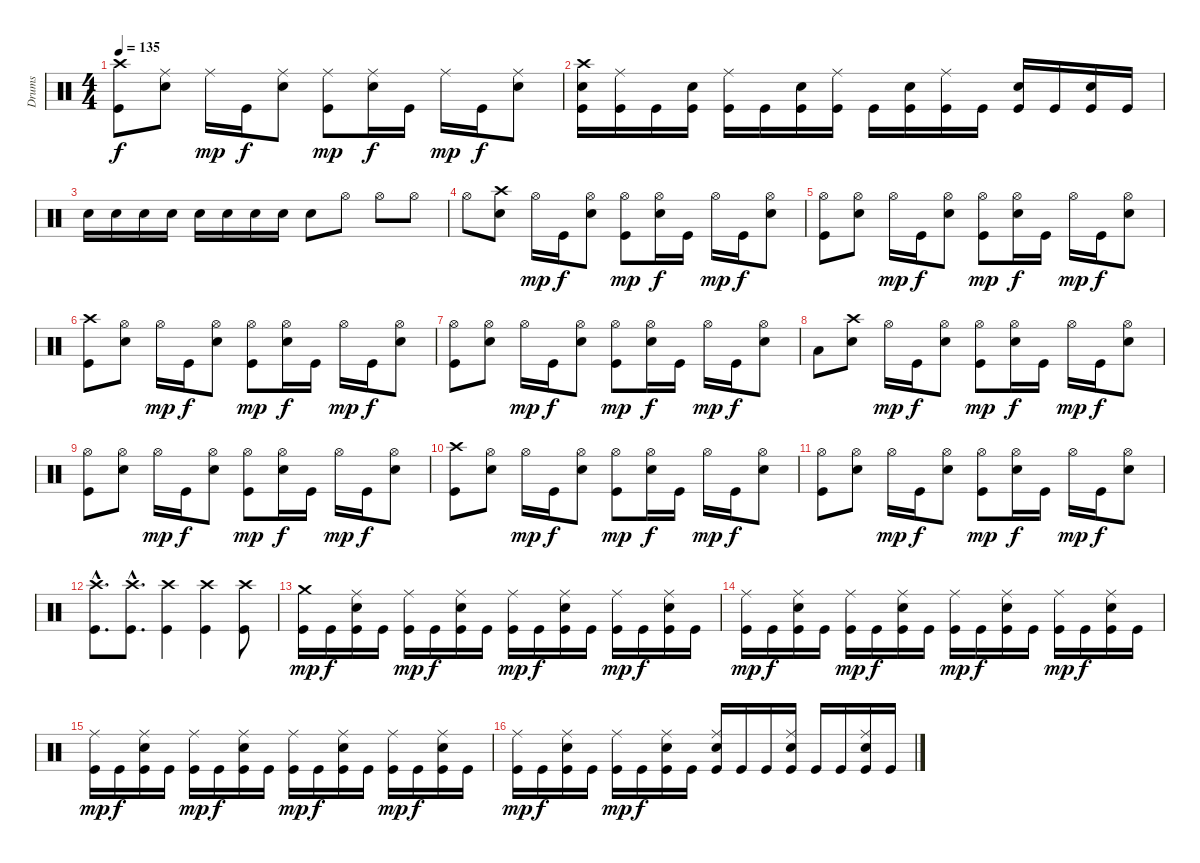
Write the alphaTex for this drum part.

\track ("Drums" "Drums") {instrument percussion}
\staff {score}
\articulation defaults
\ts (4 4)
\tempo 135
\clef neutral
\ks c
("Crash high (hit)" "Kick (hit)").8{dy f} ("Ride (middle)" "Snare (hit) 2").8 "Ride (middle)".16{dy mp} "Kick (hit)".16{dy f} ("Ride (middle)" "Snare (hit) 2").8 ("Ride (middle)" "Kick (hit)").8{dy mp} ("Ride (middle)" "Snare (hit) 2").16{dy f} "Kick (hit)".16 "Ride (middle)".16{dy mp} "Kick (hit)".16{dy f} ("Ride (middle)" "Snare (hit) 2").8 |
("Crash high (hit)" "Snare (hit) 2" "Kick (hit)").16 ("Ride (middle)" "Kick (hit)").16 "Kick (hit)".16 ("Snare (hit) 2" "Kick (hit)").16 ("Ride (middle)" "Kick (hit)").16 "Kick (hit)".16 ("Snare (hit) 2" "Kick (hit)").16 ("Ride (middle)" "Kick (hit)").16 "Kick (hit)".16 ("Snare (hit) 2" "Kick (hit)").16 ("Ride (middle)" "Kick (hit)").16 "Kick (hit)".16 ("Snare (hit) 2" "Kick (hit)").16 "Kick (hit)".16 ("Snare (hit) 2" "Kick (hit)").16 "Kick (hit)".16 |
"Snare (hit) 2".16 "Snare (hit) 2".16 "Snare (hit) 2".16 "Snare (hit) 2".16 "Snare (hit) 2".16 "Snare (hit) 2".16 "Snare (hit) 2".16 "Snare (hit) 2".16 "Snare (hit) 2".8 "Hi-Hat (open)".8 "Hi-Hat (open)".8 "Hi-Hat (open)".8 |
"Hi-Hat (open)".8 ("Crash high (hit)" "Snare (hit) 2").8 "Hi-Hat (open)".16{dy mp} "Kick (hit)".16{dy f} ("Hi-Hat (open)" "Snare (hit) 2").8 ("Hi-Hat (open)" "Kick (hit)").8{dy mp} ("Hi-Hat (open)" "Snare (hit) 2").16{dy f} "Kick (hit)".16 "Hi-Hat (open)".16{dy mp} "Kick (hit)".16{dy f} ("Hi-Hat (open)" "Snare (hit) 2").8 |
("Hi-Hat (open)" "Kick (hit)").8 ("Hi-Hat (open)" "Snare (hit) 2").8 "Hi-Hat (open)".16{dy mp} "Kick (hit)".16{dy f} ("Hi-Hat (open)" "Snare (hit) 2").8 ("Hi-Hat (open)" "Kick (hit)").8{dy mp} ("Hi-Hat (open)" "Snare (hit) 2").16{dy f} "Kick (hit)".16 "Hi-Hat (open)".16{dy mp} "Kick (hit)".16{dy f} ("Hi-Hat (open)" "Snare (hit) 2").8 |
("Crash high (hit)" "Kick (hit)").8 ("Hi-Hat (open)" "Snare (hit) 2").8 "Hi-Hat (open)".16{dy mp} "Kick (hit)".16{dy f} ("Hi-Hat (open)" "Snare (hit) 2").8 ("Hi-Hat (open)" "Kick (hit)").8{dy mp} ("Hi-Hat (open)" "Snare (hit) 2").16{dy f} "Kick (hit)".16 "Hi-Hat (open)".16{dy mp} "Kick (hit)".16{dy f} ("Hi-Hat (open)" "Snare (hit) 2").8 |
("Hi-Hat (open)" "Kick (hit)").8 ("Hi-Hat (open)" "Snare (hit) 2").8 "Hi-Hat (open)".16{dy mp} "Kick (hit)".16{dy f} ("Hi-Hat (open)" "Snare (hit) 2").8 ("Hi-Hat (open)" "Kick (hit)").8{dy mp} ("Hi-Hat (open)" "Snare (hit) 2").16{dy f} "Kick (hit)".16 "Hi-Hat (open)".16{dy mp} "Kick (hit)".16{dy f} ("Hi-Hat (open)" "Snare (hit) 2").8 |
"Low Tom (hit)".8 ("Crash high (hit)" "Snare (hit) 2").8 "Hi-Hat (open)".16{dy mp} "Kick (hit)".16{dy f} ("Hi-Hat (open)" "Snare (hit) 2").8 ("Hi-Hat (open)" "Kick (hit)").8{dy mp} ("Hi-Hat (open)" "Snare (hit) 2").16{dy f} "Kick (hit)".16 "Hi-Hat (open)".16{dy mp} "Kick (hit)".16{dy f} ("Hi-Hat (open)" "Snare (hit) 2").8 |
("Hi-Hat (open)" "Kick (hit)").8 ("Hi-Hat (open)" "Snare (hit) 2").8 "Hi-Hat (open)".16{dy mp} "Kick (hit)".16{dy f} ("Hi-Hat (open)" "Snare (hit) 2").8 ("Hi-Hat (open)" "Kick (hit)").8{dy mp} ("Hi-Hat (open)" "Snare (hit) 2").16{dy f} "Kick (hit)".16 "Hi-Hat (open)".16{dy mp} "Kick (hit)".16{dy f} ("Hi-Hat (open)" "Snare (hit) 2").8 |
("Crash high (hit)" "Kick (hit)").8 ("Hi-Hat (open)" "Snare (hit) 2").8 "Hi-Hat (open)".16{dy mp} "Kick (hit)".16{dy f} ("Hi-Hat (open)" "Snare (hit) 2").8 ("Hi-Hat (open)" "Kick (hit)").8{dy mp} ("Hi-Hat (open)" "Snare (hit) 2").16{dy f} "Kick (hit)".16 "Hi-Hat (open)".16{dy mp} "Kick (hit)".16{dy f} ("Hi-Hat (open)" "Snare (hit) 2").8 |
("Hi-Hat (open)" "Kick (hit)").8 ("Hi-Hat (open)" "Snare (hit) 2").8 "Hi-Hat (open)".16{dy mp} "Kick (hit)".16{dy f} ("Hi-Hat (open)" "Snare (hit) 2").8 ("Hi-Hat (open)" "Kick (hit)").8{dy mp} ("Hi-Hat (open)" "Snare (hit) 2").16{dy f} "Kick (hit)".16 "Hi-Hat (open)".16{dy mp} "Kick (hit)".16{dy f} ("Hi-Hat (open)" "Snare (hit) 2").8 |
("Crash high (hit)"{hac} "Kick (hit)"{hac}).8{d} ("Crash high (hit)"{hac} "Kick (hit)"{hac}).8{d} ("Crash high (hit)" "Kick (hit)").4 ("Crash high (hit)" "Kick (hit)").4 ("Crash high (hit)" "Kick (hit)").8 |
("Crash medium (hit)" "Kick (hit)").16{dy mp} "Kick (hit)".16{dy f} ("Ride (middle)" "Snare (hit) 2" "Kick (hit)").16 "Kick (hit)".16 ("Ride (middle)" "Kick (hit)").16{dy mp} "Kick (hit)".16{dy f} ("Ride (middle)" "Snare (hit) 2" "Kick (hit)").16 "Kick (hit)".16 ("Ride (middle)" "Kick (hit)").16{dy mp} "Kick (hit)".16{dy f} ("Ride (middle)" "Snare (hit) 2" "Kick (hit)").16 "Kick (hit)".16 ("Ride (middle)" "Kick (hit)").16{dy mp} "Kick (hit)".16{dy f} ("Ride (middle)" "Snare (hit) 2" "Kick (hit)").16 "Kick (hit)".16 |
("Ride (middle)" "Kick (hit)").16{dy mp} "Kick (hit)".16{dy f} ("Ride (middle)" "Snare (hit) 2" "Kick (hit)").16 "Kick (hit)".16 ("Ride (middle)" "Kick (hit)").16{dy mp} "Kick (hit)".16{dy f} ("Ride (middle)" "Snare (hit) 2" "Kick (hit)").16 "Kick (hit)".16 ("Ride (middle)" "Kick (hit)").16{dy mp} "Kick (hit)".16{dy f} ("Ride (middle)" "Snare (hit) 2" "Kick (hit)").16 "Kick (hit)".16 ("Ride (middle)" "Kick (hit)").16{dy mp} "Kick (hit)".16{dy f} ("Ride (middle)" "Snare (hit) 2" "Kick (hit)").16 "Kick (hit)".16 |
("Ride (middle)" "Kick (hit)").16{dy mp} "Kick (hit)".16{dy f} ("Ride (middle)" "Snare (hit) 2" "Kick (hit)").16 "Kick (hit)".16 ("Ride (middle)" "Kick (hit)").16{dy mp} "Kick (hit)".16{dy f} ("Ride (middle)" "Snare (hit) 2" "Kick (hit)").16 "Kick (hit)".16 ("Ride (middle)" "Kick (hit)").16{dy mp} "Kick (hit)".16{dy f} ("Ride (middle)" "Snare (hit) 2" "Kick (hit)").16 "Kick (hit)".16 ("Ride (middle)" "Kick (hit)").16{dy mp} "Kick (hit)".16{dy f} ("Ride (middle)" "Snare (hit) 2" "Kick (hit)").16 "Kick (hit)".16 |
("Ride (middle)" "Kick (hit)").16{dy mp} "Kick (hit)".16{dy f} ("Ride (middle)" "Snare (hit) 2" "Kick (hit)").16 "Kick (hit)".16 ("Ride (middle)" "Kick (hit)").16{dy mp} "Kick (hit)".16{dy f} ("Ride (middle)" "Snare (hit) 2" "Kick (hit)").16 "Kick (hit)".16 ("Ride (middle)" "Snare (hit) 2" "Kick (hit)").16 "Kick (hit)".16 "Kick (hit)".16 ("Ride (middle)" "Snare (hit) 2" "Kick (hit)").16 "Kick (hit)".16 "Kick (hit)".16 ("Ride (middle)" "Snare (hit) 2" "Kick (hit)").16 "Kick (hit)".16
